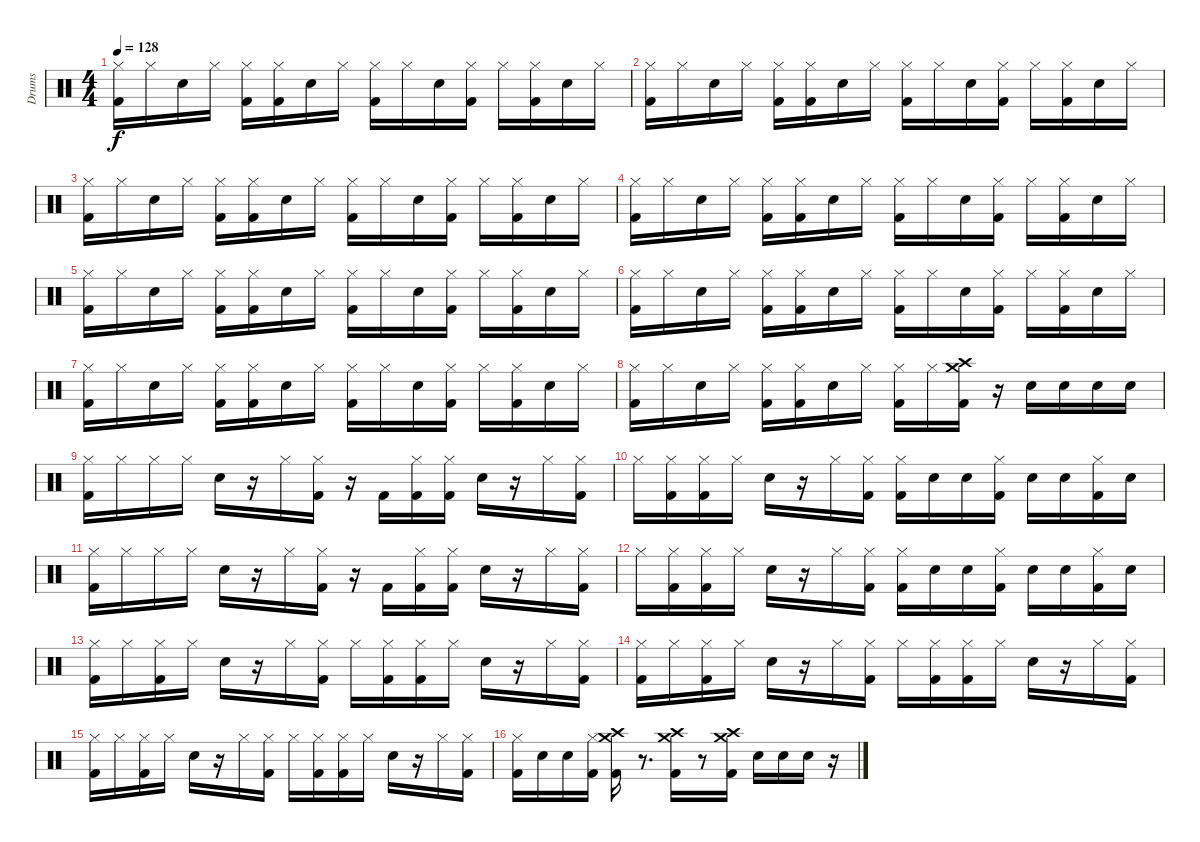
\track ("Drums" "Drums") {instrument percussion}
\staff {score}
\articulation defaults
\ts (4 4)
\tempo 128
\clef neutral
\ks c
("Hi-Hat (closed)" "Kick (hit) 2").16{dy f} "Hi-Hat (closed)".16 "Snare (hit) 2".16 "Hi-Hat (closed)".16 ("Hi-Hat (closed)" "Kick (hit) 2").16 ("Hi-Hat (closed)" "Kick (hit) 2").16 "Snare (hit) 2".16 "Hi-Hat (closed)".16 ("Hi-Hat (closed)" "Kick (hit) 2").16 "Hi-Hat (closed)".16 "Snare (hit) 2".16 ("Hi-Hat (closed)" "Kick (hit) 2").16 "Hi-Hat (closed)".16 ("Hi-Hat (closed)" "Kick (hit) 2").16 "Snare (hit) 2".16 "Hi-Hat (closed)".16 |
("Hi-Hat (closed)" "Kick (hit) 2").16 "Hi-Hat (closed)".16 "Snare (hit) 2".16 "Hi-Hat (closed)".16 ("Hi-Hat (closed)" "Kick (hit) 2").16 ("Hi-Hat (closed)" "Kick (hit) 2").16 "Snare (hit) 2".16 "Hi-Hat (closed)".16 ("Hi-Hat (closed)" "Kick (hit) 2").16 "Hi-Hat (closed)".16 "Snare (hit) 2".16 ("Hi-Hat (closed)" "Kick (hit) 2").16 "Hi-Hat (closed)".16 ("Hi-Hat (closed)" "Kick (hit) 2").16 "Snare (hit) 2".16 "Hi-Hat (closed)".16 |
("Hi-Hat (closed)" "Kick (hit) 2").16 "Hi-Hat (closed)".16 "Snare (hit) 2".16 "Hi-Hat (closed)".16 ("Hi-Hat (closed)" "Kick (hit) 2").16 ("Hi-Hat (closed)" "Kick (hit) 2").16 "Snare (hit) 2".16 "Hi-Hat (closed)".16 ("Hi-Hat (closed)" "Kick (hit) 2").16 "Hi-Hat (closed)".16 "Snare (hit) 2".16 ("Hi-Hat (closed)" "Kick (hit) 2").16 "Hi-Hat (closed)".16 ("Hi-Hat (closed)" "Kick (hit) 2").16 "Snare (hit) 2".16 "Hi-Hat (closed)".16 |
("Hi-Hat (closed)" "Kick (hit) 2").16 "Hi-Hat (closed)".16 "Snare (hit) 2".16 "Hi-Hat (closed)".16 ("Hi-Hat (closed)" "Kick (hit) 2").16 ("Hi-Hat (closed)" "Kick (hit) 2").16 "Snare (hit) 2".16 "Hi-Hat (closed)".16 ("Hi-Hat (closed)" "Kick (hit) 2").16 "Hi-Hat (closed)".16 "Snare (hit) 2".16 ("Hi-Hat (closed)" "Kick (hit) 2").16 "Hi-Hat (closed)".16 ("Hi-Hat (closed)" "Kick (hit) 2").16 "Snare (hit) 2".16 "Hi-Hat (closed)".16 |
("Hi-Hat (closed)" "Kick (hit) 2").16 "Hi-Hat (closed)".16 "Snare (hit) 2".16 "Hi-Hat (closed)".16 ("Hi-Hat (closed)" "Kick (hit) 2").16 ("Hi-Hat (closed)" "Kick (hit) 2").16 "Snare (hit) 2".16 "Hi-Hat (closed)".16 ("Hi-Hat (closed)" "Kick (hit) 2").16 "Hi-Hat (closed)".16 "Snare (hit) 2".16 ("Hi-Hat (closed)" "Kick (hit) 2").16 "Hi-Hat (closed)".16 ("Hi-Hat (closed)" "Kick (hit) 2").16 "Snare (hit) 2".16 "Hi-Hat (closed)".16 |
("Hi-Hat (closed)" "Kick (hit) 2").16 "Hi-Hat (closed)".16 "Snare (hit) 2".16 "Hi-Hat (closed)".16 ("Hi-Hat (closed)" "Kick (hit) 2").16 ("Hi-Hat (closed)" "Kick (hit) 2").16 "Snare (hit) 2".16 "Hi-Hat (closed)".16 ("Hi-Hat (closed)" "Kick (hit) 2").16 "Hi-Hat (closed)".16 "Snare (hit) 2".16 ("Hi-Hat (closed)" "Kick (hit) 2").16 "Hi-Hat (closed)".16 ("Hi-Hat (closed)" "Kick (hit) 2").16 "Snare (hit) 2".16 "Hi-Hat (closed)".16 |
("Hi-Hat (closed)" "Kick (hit) 2").16 "Hi-Hat (closed)".16 "Snare (hit) 2".16 "Hi-Hat (closed)".16 ("Hi-Hat (closed)" "Kick (hit) 2").16 ("Hi-Hat (closed)" "Kick (hit) 2").16 "Snare (hit) 2".16 "Hi-Hat (closed)".16 ("Hi-Hat (closed)" "Kick (hit) 2").16 "Hi-Hat (closed)".16 "Snare (hit) 2".16 ("Hi-Hat (closed)" "Kick (hit) 2").16 "Hi-Hat (closed)".16 ("Hi-Hat (closed)" "Kick (hit) 2").16 "Snare (hit) 2".16 "Hi-Hat (closed)".16 |
("Hi-Hat (closed)" "Kick (hit) 2").16 "Hi-Hat (closed)".16 "Snare (hit) 2".16 "Hi-Hat (closed)".16 ("Hi-Hat (closed)" "Kick (hit) 2").16 ("Hi-Hat (closed)" "Kick (hit) 2").16 "Snare (hit) 2".16 "Hi-Hat (closed)".16 ("Hi-Hat (closed)" "Kick (hit) 2").16 "Hi-Hat (closed)".16 ("Crash medium (hit)" "Crash high (hit)" "Kick (hit) 2").16 r.16 "Snare (hit) 2".16 "Snare (hit) 2".16 "Snare (hit) 2".16 "Snare (hit) 2".16 |
("Hi-Hat (closed)" "Kick (hit) 2").16 "Hi-Hat (closed)".16 "Hi-Hat (closed)".16 "Hi-Hat (closed)".16 "Snare (hit) 2".16 r.16 "Hi-Hat (closed)".16 ("Hi-Hat (closed)" "Kick (hit) 2").16 r.16 "Kick (hit) 2".16 ("Hi-Hat (closed)" "Kick (hit) 2").16 ("Hi-Hat (closed)" "Kick (hit) 2").16 "Snare (hit) 2".16 r.16 "Hi-Hat (closed)".16 ("Hi-Hat (closed)" "Kick (hit) 2").16 |
"Hi-Hat (closed)".16 ("Hi-Hat (closed)" "Kick (hit) 2").16 ("Hi-Hat (closed)" "Kick (hit) 2").16 "Hi-Hat (closed)".16 "Snare (hit) 2".16 r.16 "Hi-Hat (closed)".16 ("Hi-Hat (closed)" "Kick (hit) 2").16 ("Hi-Hat (closed)" "Kick (hit) 2").16 "Snare (hit) 2".16 "Snare (hit) 2".16 ("Hi-Hat (closed)" "Kick (hit) 2").16 "Snare (hit) 2".16 "Snare (hit) 2".16 ("Hi-Hat (closed)" "Kick (hit) 2").16 "Snare (hit) 2".16 |
("Hi-Hat (closed)" "Kick (hit) 2").16 "Hi-Hat (closed)".16 "Hi-Hat (closed)".16 "Hi-Hat (closed)".16 "Snare (hit) 2".16 r.16 "Hi-Hat (closed)".16 ("Hi-Hat (closed)" "Kick (hit) 2").16 r.16 "Kick (hit) 2".16 ("Hi-Hat (closed)" "Kick (hit) 2").16 ("Hi-Hat (closed)" "Kick (hit) 2").16 "Snare (hit) 2".16 r.16 "Hi-Hat (closed)".16 ("Hi-Hat (closed)" "Kick (hit) 2").16 |
"Hi-Hat (closed)".16 ("Hi-Hat (closed)" "Kick (hit) 2").16 ("Hi-Hat (closed)" "Kick (hit) 2").16 "Hi-Hat (closed)".16 "Snare (hit) 2".16 r.16 "Hi-Hat (closed)".16 ("Hi-Hat (closed)" "Kick (hit) 2").16 ("Hi-Hat (closed)" "Kick (hit) 2").16 "Snare (hit) 2".16 "Snare (hit) 2".16 ("Hi-Hat (closed)" "Kick (hit) 2").16 "Snare (hit) 2".16 "Snare (hit) 2".16 ("Hi-Hat (closed)" "Kick (hit) 2").16 "Snare (hit) 2".16 |
("Hi-Hat (closed)" "Kick (hit) 2").16 "Hi-Hat (closed)".16 ("Hi-Hat (closed)" "Kick (hit) 2").16 "Hi-Hat (closed)".16 "Snare (hit) 2".16 r.16 "Hi-Hat (closed)".16 ("Hi-Hat (closed)" "Kick (hit) 2").16 "Hi-Hat (closed)".16 ("Hi-Hat (closed)" "Kick (hit) 2").16 ("Hi-Hat (closed)" "Kick (hit) 2").16 "Hi-Hat (closed)".16 "Snare (hit) 2".16 r.16 "Hi-Hat (closed)".16 ("Hi-Hat (closed)" "Kick (hit) 2").16 |
("Hi-Hat (closed)" "Kick (hit) 2").16 "Hi-Hat (closed)".16 ("Hi-Hat (closed)" "Kick (hit) 2").16 "Hi-Hat (closed)".16 "Snare (hit) 2".16 r.16 "Hi-Hat (closed)".16 ("Hi-Hat (closed)" "Kick (hit) 2").16 "Hi-Hat (closed)".16 ("Hi-Hat (closed)" "Kick (hit) 2").16 ("Hi-Hat (closed)" "Kick (hit) 2").16 "Hi-Hat (closed)".16 "Snare (hit) 2".16 r.16 "Hi-Hat (closed)".16 ("Hi-Hat (closed)" "Kick (hit) 2").16 |
("Hi-Hat (closed)" "Kick (hit) 2").16 "Hi-Hat (closed)".16 ("Hi-Hat (closed)" "Kick (hit) 2").16 "Hi-Hat (closed)".16 "Snare (hit) 2".16 r.16 "Hi-Hat (closed)".16 ("Hi-Hat (closed)" "Kick (hit) 2").16 "Hi-Hat (closed)".16 ("Hi-Hat (closed)" "Kick (hit) 2").16 ("Hi-Hat (closed)" "Kick (hit) 2").16 "Hi-Hat (closed)".16 "Snare (hit) 2".16 r.16 "Hi-Hat (closed)".16 ("Hi-Hat (closed)" "Kick (hit) 2").16 |
("Hi-Hat (closed)" "Kick (hit) 2").16 "Snare (hit) 2".16 "Snare (hit) 2".16 ("Hi-Hat (closed)" "Kick (hit) 2").16 ("Crash medium (hit)" "Crash high (hit)" "Kick (hit) 2").16 r.8{d} ("Crash medium (hit)" "Crash high (hit)" "Kick (hit) 2").16 r.8 ("Crash medium (hit)" "Crash high (hit)" "Kick (hit) 2").16 "Snare (hit) 2".16 "Snare (hit) 2".16 "Snare (hit) 2".16 r.16
